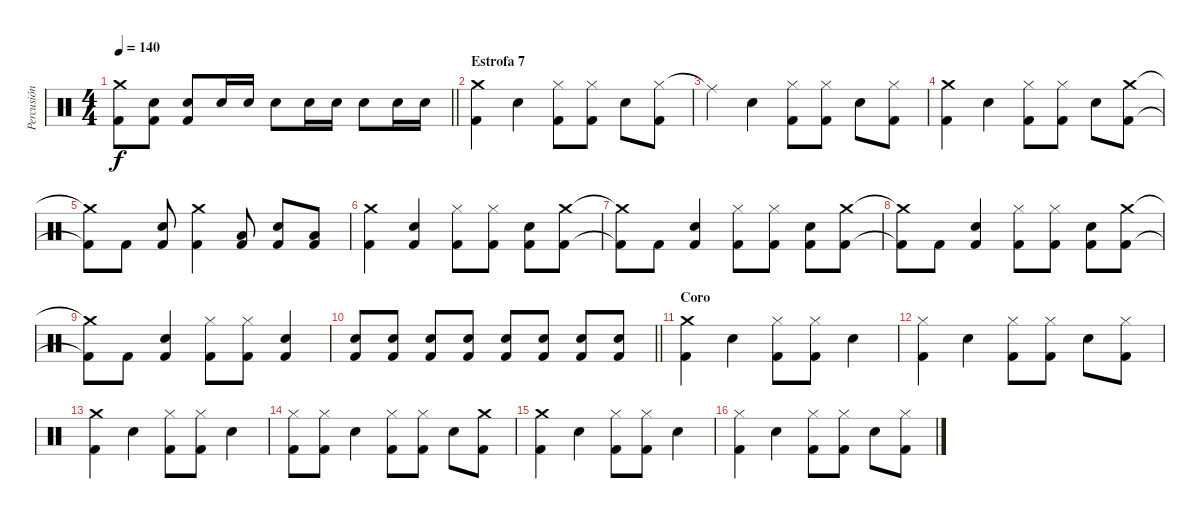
\track ("Percusión" "Percusión") {instrument percussion}
\staff {score}
\articulation defaults
\ts (4 4)
\tempo 140
\clef neutral
\barLineRight lightlight
\ks c
("Crash medium (hit)"{t} "Kick (hit) 2"{t}).8{dy f} ("Snare (hit) 2" "Kick (hit) 2").8 ("Snare (hit) 2" "Kick (hit) 2").8 "Snare (hit) 2".16 "Snare (hit) 2".16 "Snare (hit) 2".8 "Snare (hit) 2".16 "Snare (hit) 2".16 "Snare (hit) 2".8 "Snare (hit) 2".16 "Snare (hit) 2".16 |
\section ("" "Estrofa 7")
("Crash medium (hit)" "Kick (hit) 2").4 "Snare (hit) 2".4 ("Hi-Hat (closed)" "Kick (hit) 2").8 ("Hi-Hat (closed)" "Kick (hit) 2").8 "Snare (hit) 2".8 ("Hi-Hat (closed)" "Kick (hit) 2").8 |
"Ride (middle)"{t}.4 "Snare (hit) 2".4 ("Hi-Hat (closed)" "Kick (hit) 2").8 ("Hi-Hat (closed)" "Kick (hit) 2").8 "Snare (hit) 2".8 ("Hi-Hat (closed)" "Kick (hit) 2").8 |
("Crash medium (hit)" "Kick (hit) 2").4 "Snare (hit) 2".4 ("Hi-Hat (closed)" "Kick (hit) 2").8 ("Hi-Hat (closed)" "Kick (hit) 2").8 "Snare (hit) 2".8 ("Crash medium (hit)" "Kick (hit) 2").8 |
("Crash medium (hit)"{t} "Kick (hit) 2"{t}).8 "Kick (hit) 2".8 ("Snare (hit) 2" "Kick (hit) 2").8 ("Crash medium (hit)" "Kick (hit) 2").4 ("Low Floor Tom (hit)" "Kick (hit) 2").8 ("Snare (hit) 2" "Kick (hit) 2").8 ("Low Floor Tom (hit)" "Kick (hit) 2").8 |
("Crash medium (hit)" "Kick (hit) 2").4 ("Snare (hit) 2" "Kick (hit) 2").4 ("Hi-Hat (closed)" "Kick (hit) 2").8 ("Hi-Hat (closed)" "Kick (hit) 2").8 ("Snare (hit) 2" "Kick (hit) 2").8 ("Crash medium (hit)" "Kick (hit) 2").8 |
("Crash medium (hit)"{t} "Kick (hit) 2"{t}).8 "Kick (hit) 2".8 ("Snare (hit) 2" "Kick (hit) 2").4 ("Hi-Hat (closed)" "Kick (hit) 2").8 ("Hi-Hat (closed)" "Kick (hit) 2").8 ("Snare (hit) 2" "Kick (hit) 2").8 ("Crash medium (hit)" "Kick (hit) 2").8 |
("Crash medium (hit)"{t} "Kick (hit) 2"{t}).8 "Kick (hit) 2".8 ("Snare (hit) 2" "Kick (hit) 2").4 ("Hi-Hat (closed)" "Kick (hit) 2").8 ("Hi-Hat (closed)" "Kick (hit) 2").8 ("Snare (hit) 2" "Kick (hit) 2").8 ("Crash medium (hit)" "Kick (hit) 2").8 |
("Crash medium (hit)"{t} "Kick (hit) 2"{t}).8 "Kick (hit) 2".8 ("Snare (hit) 2" "Kick (hit) 2").4 ("Hi-Hat (closed)" "Kick (hit) 2").8 ("Hi-Hat (closed)" "Kick (hit) 2").8 ("Snare (hit) 2" "Kick (hit) 2").4 |
\barLineRight lightlight
("Snare (hit) 2" "Kick (hit) 2").8 ("Snare (hit) 2" "Kick (hit) 2").8 ("Snare (hit) 2" "Kick (hit) 2").8 ("Snare (hit) 2" "Kick (hit) 2").8 ("Snare (hit) 2" "Kick (hit) 2").8 ("Snare (hit) 2" "Kick (hit) 2").8 ("Snare (hit) 2" "Kick (hit) 2").8 ("Snare (hit) 2" "Kick (hit) 2").8 |
\section ("" "Coro")
("Crash medium (hit)" "Kick (hit) 2").4 "Snare (hit) 2".4 ("Hi-Hat (closed)" "Kick (hit) 2").8 ("Hi-Hat (closed)" "Kick (hit) 2").8 "Snare (hit) 2".4 |
("Hi-Hat (closed)" "Kick (hit) 2").4 "Snare (hit) 2".4 ("Hi-Hat (closed)" "Kick (hit) 2").8 ("Hi-Hat (closed)" "Kick (hit) 2").8 "Snare (hit) 2".8 ("Hi-Hat (closed)" "Kick (hit) 2").8 |
("Crash medium (hit)" "Kick (hit) 2").4 "Snare (hit) 2".4 ("Hi-Hat (closed)" "Kick (hit) 2").8 ("Hi-Hat (closed)" "Kick (hit) 2").8 "Snare (hit) 2".4 |
("Hi-Hat (closed)" "Kick (hit) 2").8 ("Hi-Hat (closed)" "Kick (hit) 2").8 "Snare (hit) 2".4 ("Hi-Hat (closed)" "Kick (hit) 2").8 ("Hi-Hat (closed)" "Kick (hit) 2").8 "Snare (hit) 2".8 ("Crash medium (hit)" "Kick (hit) 2").8 |
("Crash medium (hit)" "Kick (hit) 2").4 "Snare (hit) 2".4 ("Hi-Hat (closed)" "Kick (hit) 2").8 ("Hi-Hat (closed)" "Kick (hit) 2").8 "Snare (hit) 2".4 |
("Hi-Hat (closed)" "Kick (hit) 2").4 "Snare (hit) 2".4 ("Hi-Hat (closed)" "Kick (hit) 2").8 ("Hi-Hat (closed)" "Kick (hit) 2").8 "Snare (hit) 2".8 ("Hi-Hat (closed)" "Kick (hit) 2").8
